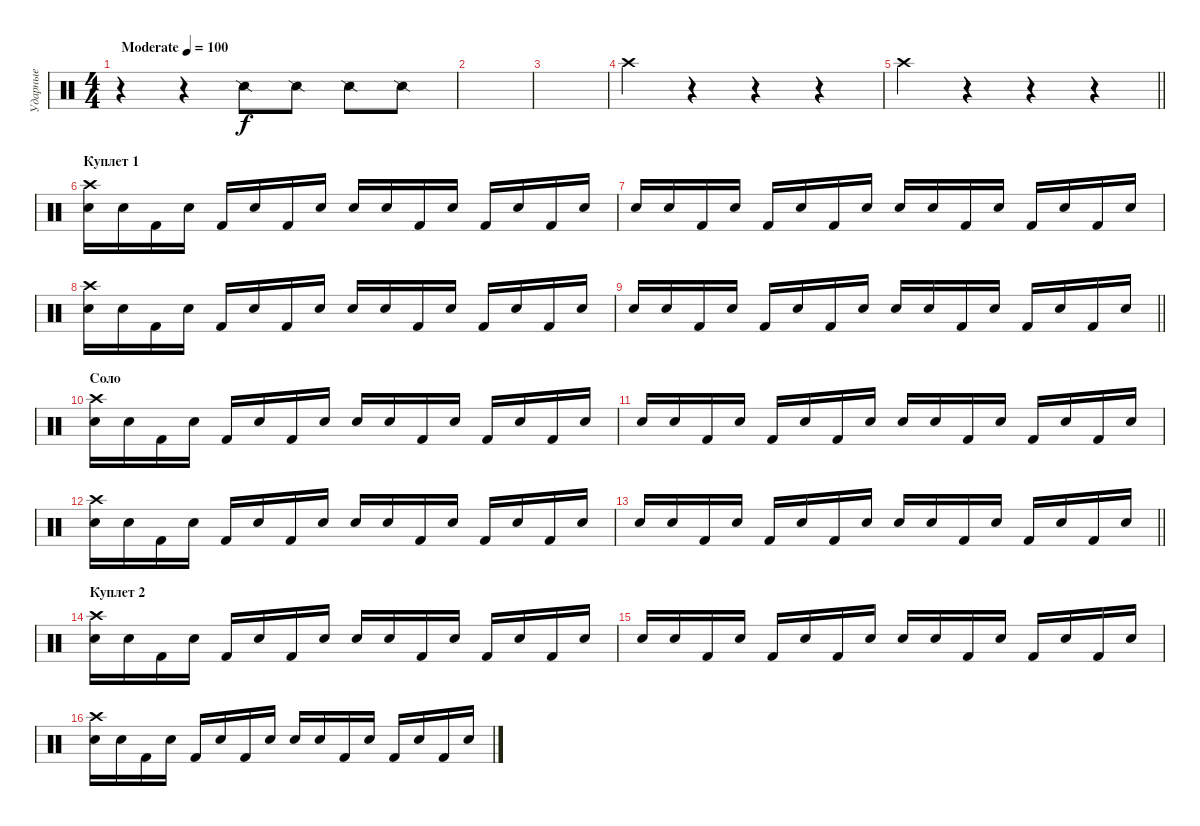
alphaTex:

\track ("Ударные" "Ударные") {instrument percussion}
\staff {score}
\articulation defaults
\ts (4 4)
\tempo (100 "Moderate")
\clef neutral
\ks c
r.4{dy f} r.4 "Snare (side stick) 2".8 "Snare (side stick) 2".8 "Snare (side stick) 2".8 "Snare (side stick) 2".8 |
|
|
"Crash high (hit)".4 r.4 r.4 r.4 |
\barLineRight lightlight "Crash high (hit)".4
r.4 r.4 r.4 |
\section ("" "Куплет 1")
("Crash high (hit)" "Snare (hit) 2").16 "Snare (hit) 2".16 "Kick (hit) 2".16 "Snare (hit) 2".16 "Kick (hit) 2".16 "Snare (hit) 2".16 "Kick (hit) 2".16 "Snare (hit) 2".16 "Snare (hit) 2".16 "Snare (hit) 2".16 "Kick (hit) 2".16 "Snare (hit) 2".16 "Kick (hit) 2".16 "Snare (hit) 2".16 "Kick (hit) 2".16 "Snare (hit) 2".16 |
"Snare (hit) 2".16 "Snare (hit) 2".16 "Kick (hit) 2".16 "Snare (hit) 2".16 "Kick (hit) 2".16 "Snare (hit) 2".16 "Kick (hit) 2".16 "Snare (hit) 2".16 "Snare (hit) 2".16 "Snare (hit) 2".16 "Kick (hit) 2".16 "Snare (hit) 2".16 "Kick (hit) 2".16 "Snare (hit) 2".16 "Kick (hit) 2".16 "Snare (hit) 2".16 |
("Crash high (hit)" "Snare (hit) 2").16 "Snare (hit) 2".16 "Kick (hit) 2".16 "Snare (hit) 2".16 "Kick (hit) 2".16 "Snare (hit) 2".16 "Kick (hit) 2".16 "Snare (hit) 2".16 "Snare (hit) 2".16 "Snare (hit) 2".16 "Kick (hit) 2".16 "Snare (hit) 2".16 "Kick (hit) 2".16 "Snare (hit) 2".16 "Kick (hit) 2".16 "Snare (hit) 2".16 |
\barLineRight lightlight "Snare (hit) 2".16 "Snare (hit) 2".16 "Kick (hit) 2".16 "Snare (hit) 2".16 "Kick (hit) 2".16 "Snare (hit) 2".16 "Kick (hit) 2".16 "Snare (hit) 2".16 "Snare (hit) 2".16 "Snare (hit) 2".16 "Kick (hit) 2".16 "Snare (hit) 2".16 "Kick (hit) 2".16 "Snare (hit) 2".16 "Kick (hit) 2".16 "Snare (hit) 2".16
|
\section ("" "Соло")
("Crash high (hit)" "Snare (hit) 2").16 "Snare (hit) 2".16 "Kick (hit) 2".16 "Snare (hit) 2".16 "Kick (hit) 2".16 "Snare (hit) 2".16 "Kick (hit) 2".16 "Snare (hit) 2".16 "Snare (hit) 2".16 "Snare (hit) 2".16 "Kick (hit) 2".16 "Snare (hit) 2".16 "Kick (hit) 2".16 "Snare (hit) 2".16 "Kick (hit) 2".16 "Snare (hit) 2".16 |
"Snare (hit) 2".16 "Snare (hit) 2".16 "Kick (hit) 2".16 "Snare (hit) 2".16 "Kick (hit) 2".16 "Snare (hit) 2".16 "Kick (hit) 2".16 "Snare (hit) 2".16 "Snare (hit) 2".16 "Snare (hit) 2".16 "Kick (hit) 2".16 "Snare (hit) 2".16 "Kick (hit) 2".16 "Snare (hit) 2".16 "Kick (hit) 2".16 "Snare (hit) 2".16 |
("Crash high (hit)" "Snare (hit) 2").16 "Snare (hit) 2".16 "Kick (hit) 2".16 "Snare (hit) 2".16 "Kick (hit) 2".16 "Snare (hit) 2".16 "Kick (hit) 2".16 "Snare (hit) 2".16 "Snare (hit) 2".16 "Snare (hit) 2".16 "Kick (hit) 2".16 "Snare (hit) 2".16 "Kick (hit) 2".16 "Snare (hit) 2".16 "Kick (hit) 2".16 "Snare (hit) 2".16 |
\barLineRight lightlight "Snare (hit) 2".16 "Snare (hit) 2".16 "Kick (hit) 2".16 "Snare (hit) 2".16 "Kick (hit) 2".16 "Snare (hit) 2".16 "Kick (hit) 2".16 "Snare (hit) 2".16 "Snare (hit) 2".16 "Snare (hit) 2".16 "Kick (hit) 2".16 "Snare (hit) 2".16 "Kick (hit) 2".16 "Snare (hit) 2".16 "Kick (hit) 2".16 "Snare (hit) 2".16
|
\section ("" "Куплет 2")
("Crash high (hit)" "Snare (hit) 2").16 "Snare (hit) 2".16 "Kick (hit) 2".16 "Snare (hit) 2".16 "Kick (hit) 2".16 "Snare (hit) 2".16 "Kick (hit) 2".16 "Snare (hit) 2".16 "Snare (hit) 2".16 "Snare (hit) 2".16 "Kick (hit) 2".16 "Snare (hit) 2".16 "Kick (hit) 2".16 "Snare (hit) 2".16 "Kick (hit) 2".16 "Snare (hit) 2".16 |
"Snare (hit) 2".16 "Snare (hit) 2".16 "Kick (hit) 2".16 "Snare (hit) 2".16 "Kick (hit) 2".16 "Snare (hit) 2".16 "Kick (hit) 2".16 "Snare (hit) 2".16 "Snare (hit) 2".16 "Snare (hit) 2".16 "Kick (hit) 2".16 "Snare (hit) 2".16 "Kick (hit) 2".16 "Snare (hit) 2".16 "Kick (hit) 2".16 "Snare (hit) 2".16 |
("Crash high (hit)" "Snare (hit) 2").16 "Snare (hit) 2".16 "Kick (hit) 2".16 "Snare (hit) 2".16 "Kick (hit) 2".16 "Snare (hit) 2".16 "Kick (hit) 2".16 "Snare (hit) 2".16 "Snare (hit) 2".16 "Snare (hit) 2".16 "Kick (hit) 2".16 "Snare (hit) 2".16 "Kick (hit) 2".16 "Snare (hit) 2".16 "Kick (hit) 2".16 "Snare (hit) 2".16
